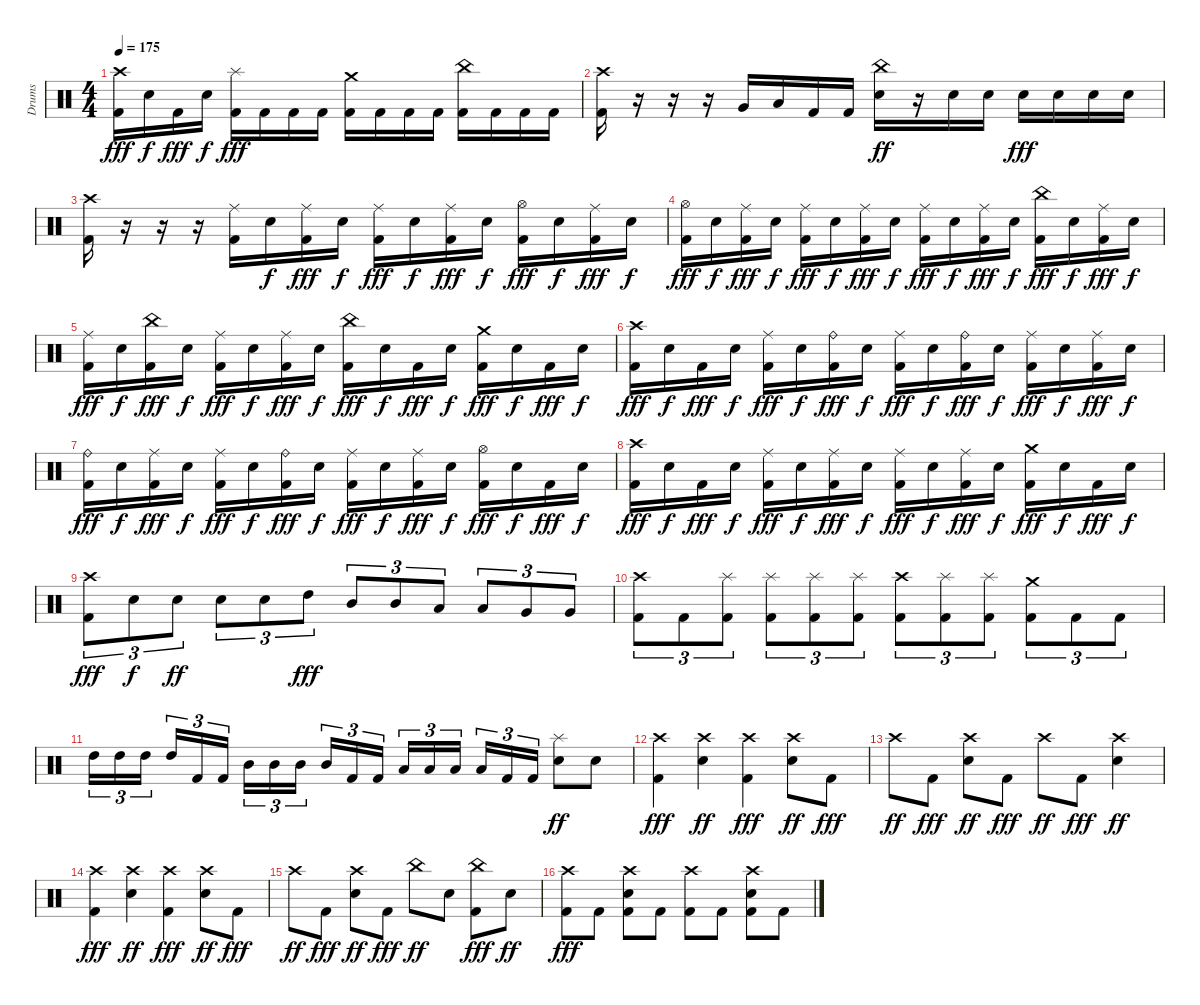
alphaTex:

\track ("Drums" "Drums") {instrument percussion}
\staff {score}
\articulation defaults
\ts (4 4)
\tempo 175
\clef neutral
\ks c
("Crash high (hit)" "Kick (hit) 2").16{dy fff} "Snare (hit) 2".16{dy f} "Kick (hit) 2".16{dy fff} "Snare (hit) 2".16{dy f} ("Splash (hit)" "Kick (hit) 2").16{dy fff} "Kick (hit) 2".16 "Kick (hit) 2".16 "Kick (hit) 2".16 ("Crash medium (hit)" "Kick (hit) 2").16 "Kick (hit) 2".16 "Kick (hit) 2".16 "Kick (hit) 2".16 ("China (hit)" "Kick (hit) 2").16 "Kick (hit) 2".16 "Kick (hit) 2".16 "Kick (hit) 2".16 |
("Crash high (hit)" "Kick (hit) 2").16 r.16 r.16 r.16 "Very Low Tom (hit)".16 "Low Tom (hit)".16 "Kick (hit) 2".16 "Kick (hit) 2".16 ("China (hit)" "Snare (hit) 2").16{dy ff} r.16 "Snare (hit) 2".16 "Snare (hit) 2".16 "Snare (hit) 2".16{dy fff} "Snare (hit) 2".16 "Snare (hit) 2".16 "Snare (hit) 2".16 |
("Crash high (hit)" "Kick (hit) 2").16 r.16 r.16 r.16 ("Ride (middle)" "Kick (hit) 2").16 "Snare (hit) 2".16{dy f} ("Ride (middle)" "Kick (hit) 2").16{dy fff} "Snare (hit) 2".16{dy f} ("Ride (middle)" "Kick (hit) 2").16{dy fff} "Snare (hit) 2".16{dy f} ("Ride (middle)" "Kick (hit) 2").16{dy fff} "Snare (hit) 2".16{dy f} ("Hi-Hat (open)" "Kick (hit) 2").16{dy fff} "Snare (hit) 2".16{dy f} ("Ride (middle)" "Kick (hit) 2").16{dy fff} "Snare (hit) 2".16{dy f} |
("Hi-Hat (open)" "Kick (hit) 2").16{dy fff} "Snare (hit) 2".16{dy f} ("Ride (middle)" "Kick (hit) 2").16{dy fff} "Snare (hit) 2".16{dy f} ("Ride (middle)" "Kick (hit) 2").16{dy fff} "Snare (hit) 2".16{dy f} ("Ride (middle)" "Kick (hit) 2").16{dy fff} "Snare (hit) 2".16{dy f} ("Ride (middle)" "Kick (hit) 2").16{dy fff} "Snare (hit) 2".16{dy f} ("Ride (middle)" "Kick (hit) 2").16{dy fff} "Snare (hit) 2".16{dy f} ("China (hit)" "Kick (hit) 2").16{dy fff} "Snare (hit) 2".16{dy f} ("Ride (middle)" "Kick (hit) 2").16{dy fff} "Snare (hit) 2".16{dy f} |
("Ride (middle)" "Kick (hit) 2").16{dy fff} "Snare (hit) 2".16{dy f} ("China (hit)" "Kick (hit) 2").16{dy fff} "Snare (hit) 2".16{dy f} ("Ride (middle)" "Kick (hit) 2").16{dy fff} "Snare (hit) 2".16{dy f} ("Ride (middle)" "Kick (hit) 2").16{dy fff} "Snare (hit) 2".16{dy f} ("China (hit)" "Kick (hit) 2").16{dy fff} "Snare (hit) 2".16{dy f} "Kick (hit) 2".16{dy fff} "Snare (hit) 2".16{dy f} ("Crash medium (hit)" "Kick (hit) 2").16{dy fff} "Snare (hit) 2".16{dy f} "Kick (hit) 2".16{dy fff} "Snare (hit) 2".16{dy f} |
("Crash high (hit)" "Kick (hit) 2").16{dy fff} "Snare (hit) 2".16{dy f} "Kick (hit) 2".16{dy fff} "Snare (hit) 2".16{dy f} ("Ride (middle)" "Kick (hit) 2").16{dy fff} "Snare (hit) 2".16{dy f} ("Ride (bell)" "Kick (hit) 2").16{dy fff} "Snare (hit) 2".16{dy f} ("Ride (middle)" "Kick (hit) 2").16{dy fff} "Snare (hit) 2".16{dy f} ("Ride (bell)" "Kick (hit) 2").16{dy fff} "Snare (hit) 2".16{dy f} ("Ride (middle)" "Kick (hit) 2").16{dy fff} "Snare (hit) 2".16{dy f} ("Ride (middle)" "Kick (hit) 2").16{dy fff} "Snare (hit) 2".16{dy f} |
("Ride (bell)" "Kick (hit) 2").16{dy fff} "Snare (hit) 2".16{dy f} ("Ride (middle)" "Kick (hit) 2").16{dy fff} "Snare (hit) 2".16{dy f} ("Ride (middle)" "Kick (hit) 2").16{dy fff} "Snare (hit) 2".16{dy f} ("Ride (bell)" "Kick (hit) 2").16{dy fff} "Snare (hit) 2".16{dy f} ("Ride (middle)" "Kick (hit) 2").16{dy fff} "Snare (hit) 2".16{dy f} ("Ride (middle)" "Kick (hit) 2").16{dy fff} "Snare (hit) 2".16{dy f} ("Hi-Hat (open)" "Kick (hit) 2").16{dy fff} "Snare (hit) 2".16{dy f} "Kick (hit) 2".16{dy fff} "Snare (hit) 2".16{dy f} |
("Crash high (hit)" "Kick (hit) 2").16{dy fff} "Snare (hit) 2".16{dy f} "Kick (hit) 2".16{dy fff} "Snare (hit) 2".16{dy f} ("Ride (middle)" "Kick (hit) 2").16{dy fff} "Snare (hit) 2".16{dy f} ("Ride (middle)" "Kick (hit) 2").16{dy fff} "Snare (hit) 2".16{dy f} ("Ride (middle)" "Kick (hit) 2").16{dy fff} "Snare (hit) 2".16{dy f} ("Ride (middle)" "Kick (hit) 2").16{dy fff} "Snare (hit) 2".16{dy f} ("Crash medium (hit)" "Kick (hit) 2").16{dy fff} "Snare (hit) 2".16{dy f} "Kick (hit) 2".16{dy fff} "Snare (hit) 2".16{dy f} |
("Crash high (hit)" "Kick (hit) 2").8{tu (3 2) dy fff} "Snare (hit) 2".8{tu (3 2) dy f} "Snare (hit) 2".8{tu (3 2) dy ff} "Snare (hit) 2".8{tu (3 2)} "Snare (hit) 2".8{tu (3 2)} "High Tom (hit)".8{tu (3 2) dy fff} "Mid Tom (hit)".8{tu (3 2)} "Mid Tom (hit)".8{tu (3 2)} "Low Tom (hit)".8{tu (3 2)} "Low Tom (hit)".8{tu (3 2)} "Very Low Tom (hit)".8{tu (3 2)} "Very Low Tom (hit)".8{tu (3 2)} |
("Crash high (hit)" "Kick (hit) 2").8{tu (3 2)} "Kick (hit) 2".8{tu (3 2)} ("Splash (hit)" "Kick (hit) 2").8{tu (3 2)} ("Splash (hit)" "Kick (hit) 2").8{tu (3 2)} ("Splash (hit)" "Kick (hit) 2").8{tu (3 2)} ("Splash (hit)" "Kick (hit) 2").8{tu (3 2)} ("Crash high (hit)" "Kick (hit) 2").8{tu (3 2)} ("Splash (hit)" "Kick (hit) 2").8{tu (3 2)} ("Splash (hit)" "Kick (hit) 2").8{tu (3 2)} ("Crash medium (hit)" "Kick (hit) 2").8{tu (3 2)} "Kick (hit) 2".8{tu (3 2)} "Kick (hit) 2".8{tu (3 2)} |
"High Tom (hit)".16{tu (3 2)} "High Tom (hit)".16{tu (3 2)} "High Tom (hit)".16{tu (3 2) beam splitsecondary} "High Tom (hit)".16{tu (3 2)} "Kick (hit) 2".16{tu (3 2)} "Kick (hit) 2".16{tu (3 2)} "Mid Tom (hit)".16{tu (3 2)} "Mid Tom (hit)".16{tu (3 2)} "Mid Tom (hit)".16{tu (3 2) beam splitsecondary} "Mid Tom (hit)".16{tu (3 2)} "Kick (hit) 2".16{tu (3 2)} "Kick (hit) 2".16{tu (3 2)} "Low Tom (hit)".16{tu (3 2)} "Low Tom (hit)".16{tu (3 2)} "Low Tom (hit)".16{tu (3 2) beam splitsecondary} "Low Tom (hit)".16{tu (3 2)} "Kick (hit) 2".16{tu (3 2)} "Kick (hit) 2".16{tu (3 2)} ("Splash (hit)" "Snare (hit) 2").8{dy ff} "Snare (hit) 2".8 |
("Crash high (hit)" "Kick (hit) 2").4{dy fff} ("Crash high (hit)" "Snare (hit) 2").4{dy ff} ("Crash high (hit)" "Kick (hit) 2").4{dy fff} ("Crash high (hit)" "Snare (hit) 2").8{dy ff} "Kick (hit) 2".8{dy fff} |
"Crash high (hit)".8{dy ff} "Kick (hit) 2".8{dy fff} ("Crash high (hit)" "Snare (hit) 2").8{dy ff} "Kick (hit) 2".8{dy fff} "Crash high (hit)".8{dy ff} "Kick (hit) 2".8{dy fff} ("Crash high (hit)" "Snare (hit) 2").4{dy ff} |
("Crash high (hit)" "Kick (hit) 2").4{dy fff} ("Crash high (hit)" "Snare (hit) 2").4{dy ff} ("Crash high (hit)" "Kick (hit) 2").4{dy fff} ("Crash high (hit)" "Snare (hit) 2").8{dy ff} "Kick (hit) 2".8{dy fff} |
"Crash high (hit)".8{dy ff} "Kick (hit) 2".8{dy fff} ("Crash high (hit)" "Snare (hit) 2").8{dy ff} "Kick (hit) 2".8{dy fff} "China (hit)".8{dy ff} "Snare (hit) 2".8 ("China (hit)" "Kick (hit) 2").8{dy fff} "Snare (hit) 2".8{dy ff} |
("Crash high (hit)" "Kick (hit) 2").8{dy fff} "Kick (hit) 2".8 ("Crash high (hit)" "Snare (hit) 2" "Kick (hit) 2").8 "Kick (hit) 2".8 ("Crash high (hit)" "Kick (hit) 2").8 "Kick (hit) 2".8 ("Crash high (hit)" "Snare (hit) 2" "Kick (hit) 2").8 "Kick (hit) 2".8
